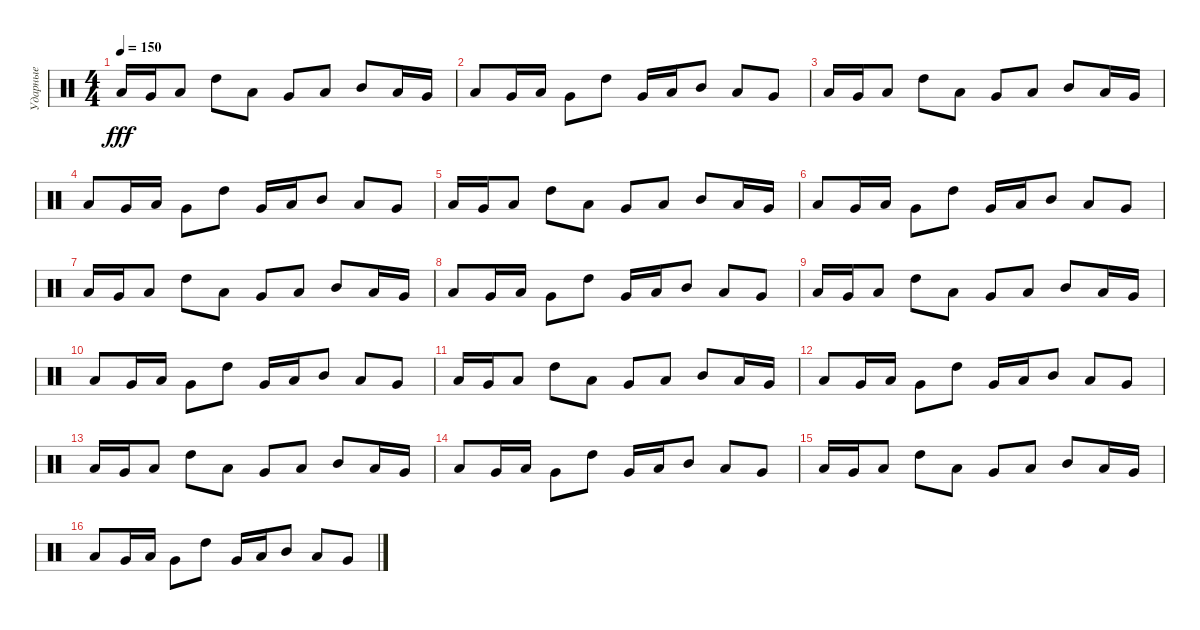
\track ("Ударные" "Ударные") {instrument percussion}
\staff {score}
\articulation defaults
\ts (4 4)
\tempo 150
\clef neutral
\ks c "Low Floor Tom (hit)".16{dy fff} "Very Low Tom (hit)".16 "Low Tom (hit)".8 "High Tom (hit)".8 "Low Tom (hit)".8 "Very Low Tom (hit)".8 "Low Floor Tom (hit)".8 "Mid Tom (hit)".8 "Low Tom (hit)".16 "Very Low Tom (hit)".16
|
"Low Floor Tom (hit)".8 "Very Low Tom (hit)".16 "Low Tom (hit)".16 "Very Low Tom (hit)".8 "High Tom (hit)".8 "Very Low Tom (hit)".16 "Low Floor Tom (hit)".16 "Mid Tom (hit)".8 "Low Tom (hit)".8 "Very Low Tom (hit)".8 |
"Low Floor Tom (hit)".16 "Very Low Tom (hit)".16 "Low Tom (hit)".8 "High Tom (hit)".8 "Low Tom (hit)".8 "Very Low Tom (hit)".8 "Low Floor Tom (hit)".8 "Mid Tom (hit)".8 "Low Tom (hit)".16 "Very Low Tom (hit)".16 |
"Low Floor Tom (hit)".8 "Very Low Tom (hit)".16 "Low Tom (hit)".16 "Very Low Tom (hit)".8 "High Tom (hit)".8 "Very Low Tom (hit)".16 "Low Floor Tom (hit)".16 "Mid Tom (hit)".8 "Low Tom (hit)".8 "Very Low Tom (hit)".8 |
"Low Floor Tom (hit)".16 "Very Low Tom (hit)".16 "Low Tom (hit)".8 "High Tom (hit)".8 "Low Tom (hit)".8 "Very Low Tom (hit)".8 "Low Floor Tom (hit)".8 "Mid Tom (hit)".8 "Low Tom (hit)".16 "Very Low Tom (hit)".16 |
"Low Floor Tom (hit)".8 "Very Low Tom (hit)".16 "Low Tom (hit)".16 "Very Low Tom (hit)".8 "High Tom (hit)".8 "Very Low Tom (hit)".16 "Low Floor Tom (hit)".16 "Mid Tom (hit)".8 "Low Tom (hit)".8 "Very Low Tom (hit)".8 |
"Low Floor Tom (hit)".16 "Very Low Tom (hit)".16 "Low Tom (hit)".8 "High Tom (hit)".8 "Low Tom (hit)".8 "Very Low Tom (hit)".8 "Low Floor Tom (hit)".8 "Mid Tom (hit)".8 "Low Tom (hit)".16 "Very Low Tom (hit)".16 |
"Low Floor Tom (hit)".8 "Very Low Tom (hit)".16 "Low Tom (hit)".16 "Very Low Tom (hit)".8 "High Tom (hit)".8 "Very Low Tom (hit)".16 "Low Floor Tom (hit)".16 "Mid Tom (hit)".8 "Low Tom (hit)".8 "Very Low Tom (hit)".8 |
"Low Floor Tom (hit)".16 "Very Low Tom (hit)".16 "Low Tom (hit)".8 "High Tom (hit)".8 "Low Tom (hit)".8 "Very Low Tom (hit)".8 "Low Floor Tom (hit)".8 "Mid Tom (hit)".8 "Low Tom (hit)".16 "Very Low Tom (hit)".16 |
"Low Floor Tom (hit)".8 "Very Low Tom (hit)".16 "Low Tom (hit)".16 "Very Low Tom (hit)".8 "High Tom (hit)".8 "Very Low Tom (hit)".16 "Low Floor Tom (hit)".16 "Mid Tom (hit)".8 "Low Tom (hit)".8 "Very Low Tom (hit)".8 |
"Low Floor Tom (hit)".16 "Very Low Tom (hit)".16 "Low Tom (hit)".8 "High Tom (hit)".8 "Low Tom (hit)".8 "Very Low Tom (hit)".8 "Low Floor Tom (hit)".8 "Mid Tom (hit)".8 "Low Tom (hit)".16 "Very Low Tom (hit)".16 |
"Low Floor Tom (hit)".8 "Very Low Tom (hit)".16 "Low Tom (hit)".16 "Very Low Tom (hit)".8 "High Tom (hit)".8 "Very Low Tom (hit)".16 "Low Floor Tom (hit)".16 "Mid Tom (hit)".8 "Low Tom (hit)".8 "Very Low Tom (hit)".8 |
"Low Floor Tom (hit)".16 "Very Low Tom (hit)".16 "Low Tom (hit)".8 "High Tom (hit)".8 "Low Tom (hit)".8 "Very Low Tom (hit)".8 "Low Floor Tom (hit)".8 "Mid Tom (hit)".8 "Low Tom (hit)".16 "Very Low Tom (hit)".16 |
"Low Floor Tom (hit)".8 "Very Low Tom (hit)".16 "Low Tom (hit)".16 "Very Low Tom (hit)".8 "High Tom (hit)".8 "Very Low Tom (hit)".16 "Low Floor Tom (hit)".16 "Mid Tom (hit)".8 "Low Tom (hit)".8 "Very Low Tom (hit)".8 |
"Low Floor Tom (hit)".16 "Very Low Tom (hit)".16 "Low Tom (hit)".8 "High Tom (hit)".8 "Low Tom (hit)".8 "Very Low Tom (hit)".8 "Low Floor Tom (hit)".8 "Mid Tom (hit)".8 "Low Tom (hit)".16 "Very Low Tom (hit)".16 |
"Low Floor Tom (hit)".8 "Very Low Tom (hit)".16 "Low Tom (hit)".16 "Very Low Tom (hit)".8 "High Tom (hit)".8 "Very Low Tom (hit)".16 "Low Floor Tom (hit)".16 "Mid Tom (hit)".8 "Low Tom (hit)".8 "Very Low Tom (hit)".8
